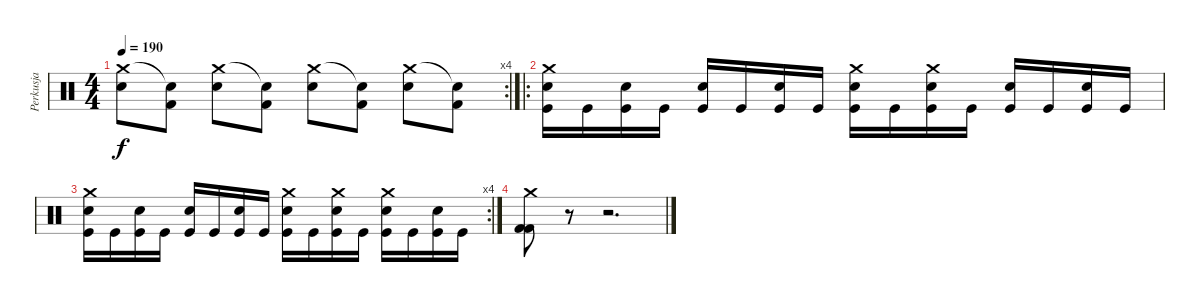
\track ("Perkusja" "Perkusja") {instrument percussion}
\staff {score}
\articulation defaults
\rc 4
\ts (4 4)
\tempo 190
\clef neutral
\ks c
("Crash medium (hit)" "Snare (hit) 2").8{dy f} ("Snare (hit)"{t} "Kick (hit) 2").8 ("Crash medium (hit)" "Snare (hit) 2").8 ("Snare (hit)"{t} "Kick (hit) 2").8 ("Crash medium (hit)" "Snare (hit) 2").8 ("Snare (hit)"{t} "Kick (hit) 2").8 ("Crash medium (hit)" "Snare (hit) 2").8 ("Snare (hit)"{t} "Kick (hit) 2").8 |
\ro
("Crash medium (hit)" "Snare (hit) 2" "Kick (hit)").16 "Kick (hit)".16 ("Snare (hit) 2" "Kick (hit)").16 "Kick (hit)".16 ("Snare (hit) 2" "Kick (hit)").16 "Kick (hit)".16 ("Snare (hit) 2" "Kick (hit)").16 "Kick (hit)".16 ("Crash medium (hit)" "Snare (hit) 2" "Kick (hit)").16 "Kick (hit)".16 ("Crash medium (hit)" "Snare (hit) 2" "Kick (hit)").16 "Kick (hit)".16 ("Snare (hit) 2" "Kick (hit)").16 "Kick (hit)".16 ("Snare (hit) 2" "Kick (hit)").16 "Kick (hit)".16 |
\rc 4
("Crash medium (hit)" "Snare (hit) 2" "Kick (hit)").16 "Kick (hit)".16 ("Snare (hit) 2" "Kick (hit)").16 "Kick (hit)".16 ("Snare (hit) 2" "Kick (hit)").16 "Kick (hit)".16 ("Snare (hit) 2" "Kick (hit)").16 "Kick (hit)".16 ("Crash medium (hit)" "Snare (hit) 2" "Kick (hit)").16 "Kick (hit)".16 ("Crash medium (hit)" "Snare (hit) 2" "Kick (hit)").16 "Kick (hit)".16 ("Crash medium (hit)" "Snare (hit) 2" "Kick (hit)").16 "Kick (hit)".16 ("Snare (hit) 2" "Kick (hit)").16 "Kick (hit)".16 |
("Crash medium (hit)" "Kick (hit) 2" "Kick (hit) 2").8 r.8 r.2{d}
